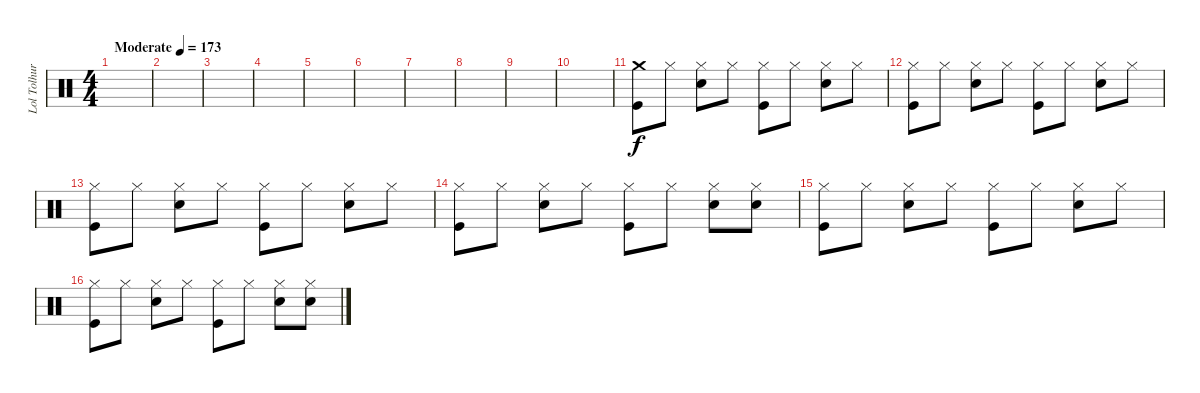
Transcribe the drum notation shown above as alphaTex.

\track ("Lol Tolhurst" "Lol Tolhur") {instrument percussion}
\staff {score}
\articulation defaults
\ts (4 4)
\tempo (173 "Moderate")
\clef neutral
\ks c
|
|
|
|
|
|
|
|
|
|
("Crash medium (hit)" "Kick (hit)").8 "Hi-Hat (closed)".8 ("Hi-Hat (closed)" "Snare (hit) 2").8 "Hi-Hat (closed)".8 ("Hi-Hat (closed)" "Kick (hit)").8 "Hi-Hat (closed)".8 ("Hi-Hat (closed)" "Snare (hit) 2").8 "Hi-Hat (closed)".8 |
("Hi-Hat (closed)" "Kick (hit)").8 "Hi-Hat (closed)".8 ("Hi-Hat (closed)" "Snare (hit) 2").8 "Hi-Hat (closed)".8 ("Hi-Hat (closed)" "Kick (hit)").8 "Hi-Hat (closed)".8 ("Hi-Hat (closed)" "Snare (hit) 2").8 "Hi-Hat (closed)".8 |
("Hi-Hat (closed)" "Kick (hit)").8 "Hi-Hat (closed)".8 ("Hi-Hat (closed)" "Snare (hit) 2").8 "Hi-Hat (closed)".8 ("Hi-Hat (closed)" "Kick (hit)").8 "Hi-Hat (closed)".8 ("Hi-Hat (closed)" "Snare (hit) 2").8 "Hi-Hat (closed)".8 |
("Hi-Hat (closed)" "Kick (hit)").8 "Hi-Hat (closed)".8 ("Hi-Hat (closed)" "Snare (hit) 2").8 "Hi-Hat (closed)".8 ("Hi-Hat (closed)" "Kick (hit)").8 "Hi-Hat (closed)".8 ("Hi-Hat (closed)" "Snare (hit) 2").8 ("Hi-Hat (closed)" "Snare (hit) 2").8 |
("Hi-Hat (closed)" "Kick (hit)").8 "Hi-Hat (closed)".8 ("Hi-Hat (closed)" "Snare (hit) 2").8 "Hi-Hat (closed)".8 ("Hi-Hat (closed)" "Kick (hit)").8 "Hi-Hat (closed)".8 ("Hi-Hat (closed)" "Snare (hit) 2").8 "Hi-Hat (closed)".8 |
("Hi-Hat (closed)" "Kick (hit)").8 "Hi-Hat (closed)".8 ("Hi-Hat (closed)" "Snare (hit) 2").8 "Hi-Hat (closed)".8 ("Hi-Hat (closed)" "Kick (hit)").8 "Hi-Hat (closed)".8 ("Hi-Hat (closed)" "Snare (hit) 2").8 ("Hi-Hat (closed)" "Snare (hit) 2").8
